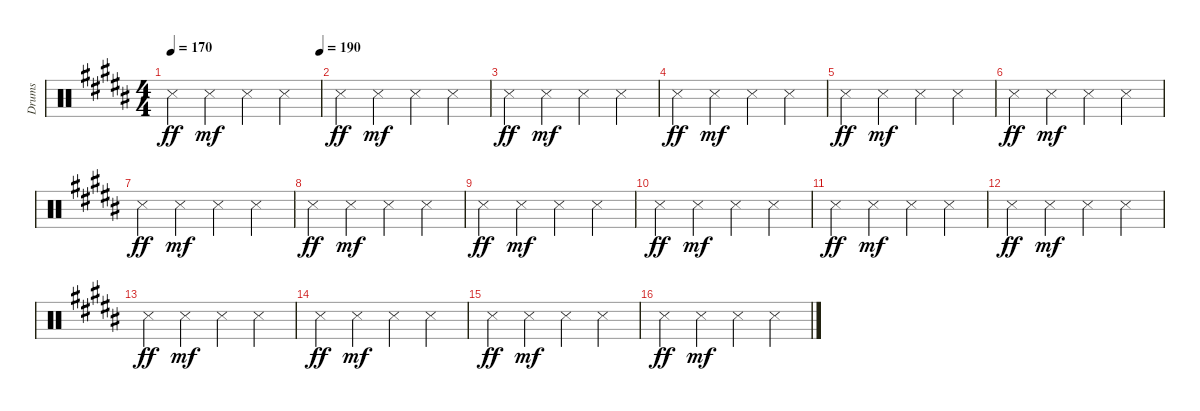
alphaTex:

\bracketExtendMode groupsimilarinstruments
\otherSystemsTrackNameOrientation horizontal
\track ("Drumkit" "Drums") {mute instrument percussion}
\staff {score}
\articulation defaults
\ts (4 4)
\tempo 170
\tempo (190 1)
\clef neutral
\scale
0.333333
\ks b "Snare (side stick) 3"{acc forcenatural}.4{dy ff} "Snare (side stick) 3"{acc forcenatural}.4{dy mf} "Snare (side stick) 3"{acc forcenatural}.4 "Snare (side stick) 3"{acc forcenatural}.4
|
\scale
0.333333 "Snare (side stick) 3"{acc forcenatural}.4{dy ff} "Snare (side stick) 3"{acc forcenatural}.4{dy mf} "Snare (side stick) 3"{acc forcenatural}.4 "Snare (side stick) 3"{acc forcenatural}.4 |
\scale
0.333333 "Snare (side stick) 3"{acc forcenatural}.4{dy ff} "Snare (side stick) 3"{acc forcenatural}.4{dy mf} "Snare (side stick) 3"{acc forcenatural}.4 "Snare (side stick) 3"{acc forcenatural}.4 |
\scale
0.333333 "Snare (side stick) 3"{acc forcenatural}.4{dy ff} "Snare (side stick) 3"{acc forcenatural}.4{dy mf} "Snare (side stick) 3"{acc forcenatural}.4 "Snare (side stick) 3"{acc forcenatural}.4 |
\scale
0.333333 "Snare (side stick) 3"{acc forcenatural}.4{dy ff} "Snare (side stick) 3"{acc forcenatural}.4{dy mf} "Snare (side stick) 3"{acc forcenatural}.4 "Snare (side stick) 3"{acc forcenatural}.4 |
\scale
0.333333 "Snare (side stick) 3"{acc forcenatural}.4{dy ff} "Snare (side stick) 3"{acc forcenatural}.4{dy mf} "Snare (side stick) 3"{acc forcenatural}.4 "Snare (side stick) 3"{acc forcenatural}.4 |
\scale
0.333333 "Snare (side stick) 3"{acc forcenatural}.4{dy ff} "Snare (side stick) 3"{acc forcenatural}.4{dy mf} "Snare (side stick) 3"{acc forcenatural}.4 "Snare (side stick) 3"{acc forcenatural}.4 |
\scale
0.333333 "Snare (side stick) 3"{acc forcenatural}.4{dy ff} "Snare (side stick) 3"{acc forcenatural}.4{dy mf} "Snare (side stick) 3"{acc forcenatural}.4 "Snare (side stick) 3"{acc forcenatural}.4 |
\scale
0.333333 "Snare (side stick) 3"{acc forcenatural}.4{dy ff} "Snare (side stick) 3"{acc forcenatural}.4{dy mf} "Snare (side stick) 3"{acc forcenatural}.4 "Snare (side stick) 3"{acc forcenatural}.4 |
\scale
0.333333 "Snare (side stick) 3"{acc forcenatural}.4{dy ff} "Snare (side stick) 3"{acc forcenatural}.4{dy mf} "Snare (side stick) 3"{acc forcenatural}.4 "Snare (side stick) 3"{acc forcenatural}.4 |
\scale
0.333333 "Snare (side stick) 3"{acc forcenatural}.4{dy ff} "Snare (side stick) 3"{acc forcenatural}.4{dy mf} "Snare (side stick) 3"{acc forcenatural}.4 "Snare (side stick) 3"{acc forcenatural}.4 |
\scale
0.333333 "Snare (side stick) 3"{acc forcenatural}.4{dy ff} "Snare (side stick) 3"{acc forcenatural}.4{dy mf} "Snare (side stick) 3"{acc forcenatural}.4 "Snare (side stick) 3"{acc forcenatural}.4 |
\scale
0.333333 "Snare (side stick) 3"{acc forcenatural}.4{dy ff} "Snare (side stick) 3"{acc forcenatural}.4{dy mf} "Snare (side stick) 3"{acc forcenatural}.4 "Snare (side stick) 3"{acc forcenatural}.4 |
\scale
0.333333 "Snare (side stick) 3"{acc forcenatural}.4{dy ff} "Snare (side stick) 3"{acc forcenatural}.4{dy mf} "Snare (side stick) 3"{acc forcenatural}.4 "Snare (side stick) 3"{acc forcenatural}.4 |
\scale
0.333333 "Snare (side stick) 3"{acc forcenatural}.4{dy ff} "Snare (side stick) 3"{acc forcenatural}.4{dy mf} "Snare (side stick) 3"{acc forcenatural}.4 "Snare (side stick) 3"{acc forcenatural}.4 |
\scale
0.333333 "Snare (side stick) 3"{acc forcenatural}.4{dy ff} "Snare (side stick) 3"{acc forcenatural}.4{dy mf} "Snare (side stick) 3"{acc forcenatural}.4 "Snare (side stick) 3"{acc forcenatural}.4
